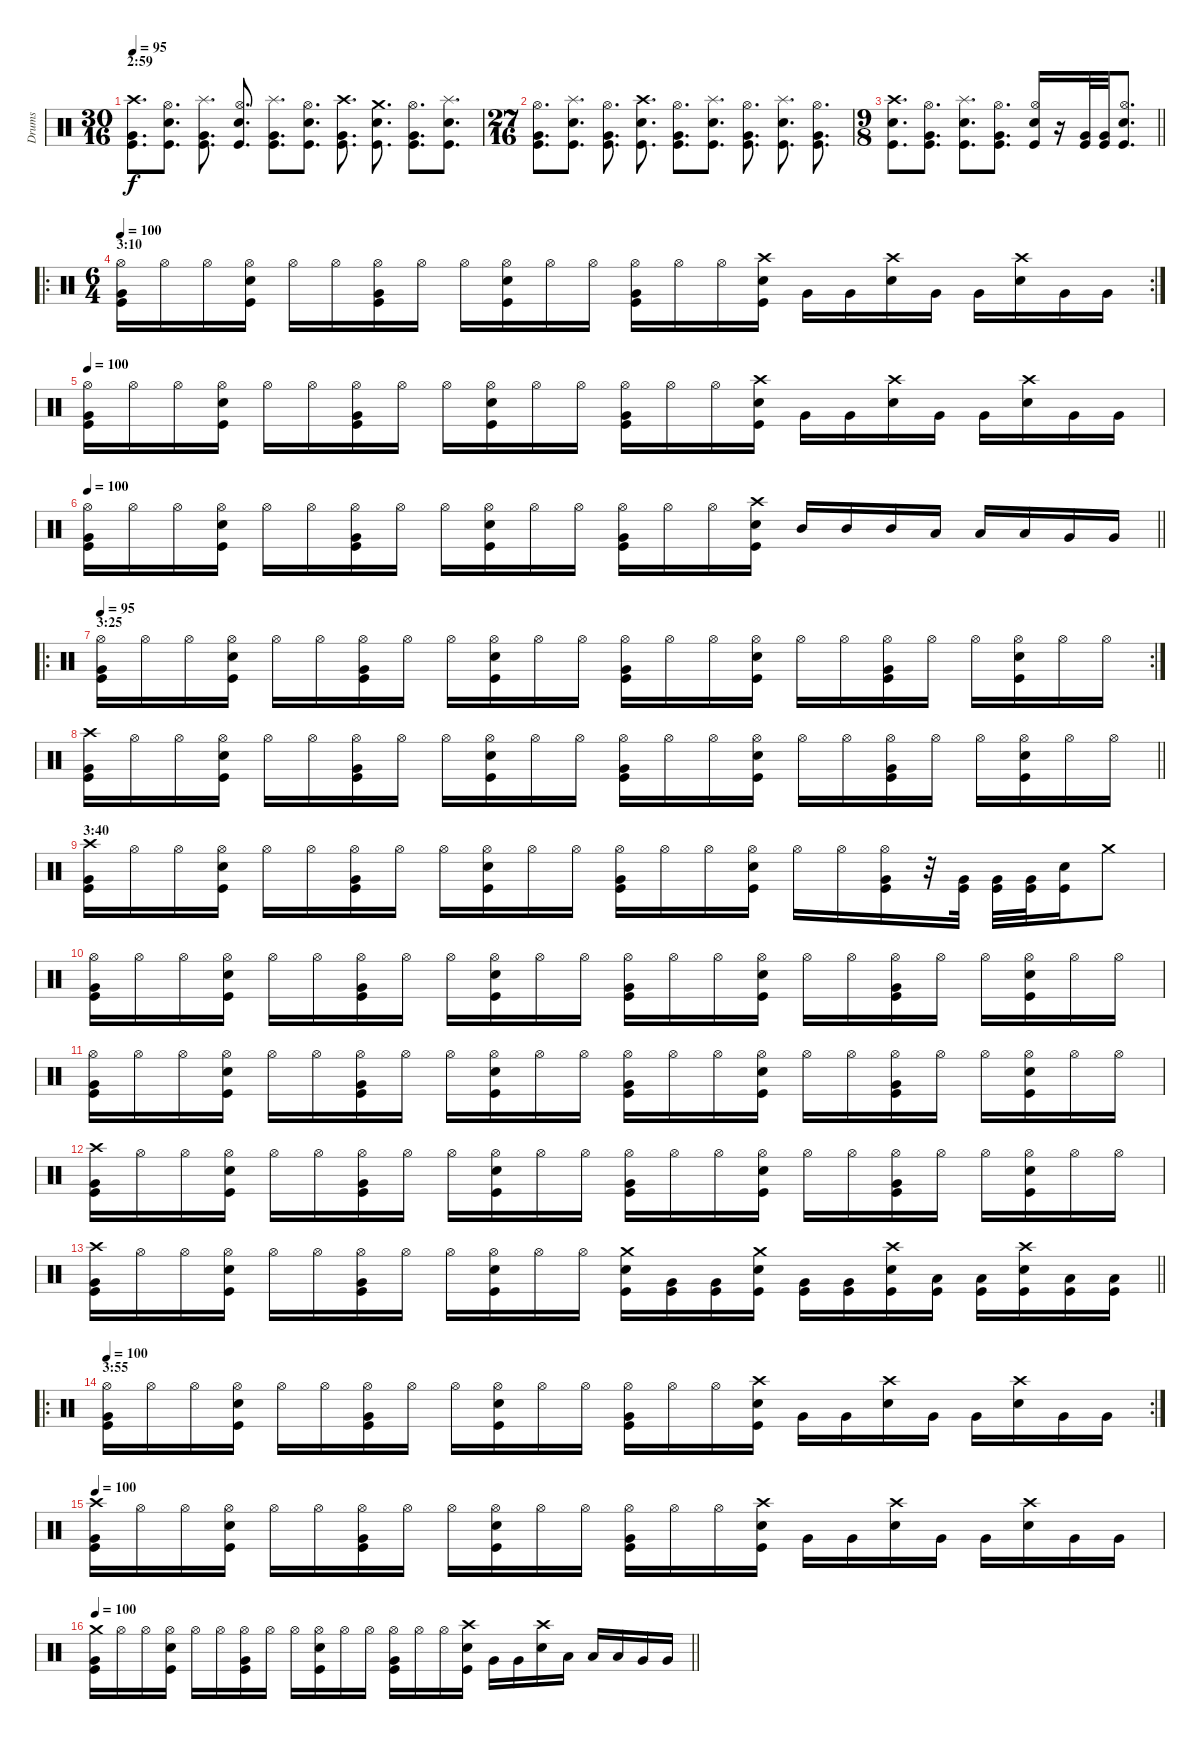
\track ("Drums" "Drums") {instrument percussion}
\staff {score}
\articulation defaults
\ts (30 16)
\section ("" "2:59")
\tempo 95
\clef neutral
\ks c
("Crash high (hit)" "Very Low Tom (hit)" "Kick (hit)").8{d dy f} ("Hi-Hat (open)" "Snare (hit) 2" "Kick (hit)").8{d} ("Splash (hit)" "Very Low Tom (hit)" "Kick (hit)").8{d} ("Hi-Hat (open)" "Snare (hit) 2" "Kick (hit)").8{d} ("Splash (hit)" "Very Low Tom (hit)" "Kick (hit)").8{d} ("Hi-Hat (open)" "Snare (hit) 2" "Kick (hit)").8{d} ("Crash high (hit)" "Very Low Tom (hit)" "Kick (hit)").8{d} ("Crash medium (hit)" "Snare (hit) 2" "Kick (hit)").8{d} ("Hi-Hat (open)" "Very Low Tom (hit)" "Kick (hit)").8{d} ("Splash (hit)" "Snare (hit) 2" "Kick (hit)").8{d} |
\ts (27 16)
("Hi-Hat (open)" "Very Low Tom (hit)" "Kick (hit)").8{d} ("Splash (hit)" "Snare (hit) 2" "Kick (hit)").8{d} ("Hi-Hat (open)" "Very Low Tom (hit)" "Kick (hit)").8{d} ("Crash high (hit)" "Snare (hit) 2" "Kick (hit)").8{d} ("Hi-Hat (open)" "Very Low Tom (hit)" "Kick (hit)").8{d} ("Splash (hit)" "Snare (hit) 2" "Kick (hit)").8{d} ("Hi-Hat (open)" "Very Low Tom (hit)" "Kick (hit)").8{d} ("Splash (hit)" "Snare (hit) 2" "Kick (hit)").8{d} ("Hi-Hat (open)" "Very Low Tom (hit)" "Kick (hit)").8{d} |
\ts (9 8)
\barLineRight lightlight
("Crash high (hit)" "Snare (hit) 2" "Kick (hit)").8{d} ("Hi-Hat (open)" "Very Low Tom (hit)" "Kick (hit)").8{d} ("Splash (hit)" "Snare (hit) 2" "Kick (hit)").8{d} ("Hi-Hat (open)" "Very Low Tom (hit)" "Kick (hit)").8{d} ("Hi-Hat (open)" "Snare (hit) 2" "Kick (hit)").16 r.16 ("Very Low Tom (hit)" "Kick (hit)").32 ("Very Low Tom (hit)" "Kick (hit)").32 ("Hi-Hat (open)" "Snare (hit) 2" "Kick (hit)").8{d} |
\ro
\rc 2
\ts (6 4)
\section ("" "3:10")
\tempo 100
("Hi-Hat (open)" "Very Low Tom (hit)" "Kick (hit)").16 "Hi-Hat (open)".16 "Hi-Hat (open)".16 ("Hi-Hat (open)" "Snare (hit) 2" "Kick (hit)").16 "Hi-Hat (open)".16 "Hi-Hat (open)".16 ("Hi-Hat (open)" "Very Low Tom (hit)" "Kick (hit)").16 "Hi-Hat (open)".16 "Hi-Hat (open)".16 ("Hi-Hat (open)" "Snare (hit) 2" "Kick (hit)").16 "Hi-Hat (open)".16 "Hi-Hat (open)".16 ("Hi-Hat (open)" "Very Low Tom (hit)" "Kick (hit)").16 "Hi-Hat (open)".16 "Hi-Hat (open)".16 ("Crash high (hit)" "Snare (hit) 2" "Kick (hit)").16 "Very Low Tom (hit)".16 "Very Low Tom (hit)".16 ("Crash high (hit)" "Snare (hit) 2").16 "Very Low Tom (hit)".16 "Very Low Tom (hit)".16 ("Crash high (hit)" "Snare (hit) 2").16 "Very Low Tom (hit)".16 "Very Low Tom (hit)".16 |
\tempo 100
("Hi-Hat (open)" "Very Low Tom (hit)" "Kick (hit)").16 "Hi-Hat (open)".16 "Hi-Hat (open)".16 ("Hi-Hat (open)" "Snare (hit) 2" "Kick (hit)").16 "Hi-Hat (open)".16 "Hi-Hat (open)".16 ("Hi-Hat (open)" "Very Low Tom (hit)" "Kick (hit)").16 "Hi-Hat (open)".16 "Hi-Hat (open)".16 ("Hi-Hat (open)" "Snare (hit) 2" "Kick (hit)").16 "Hi-Hat (open)".16 "Hi-Hat (open)".16 ("Hi-Hat (open)" "Very Low Tom (hit)" "Kick (hit)").16 "Hi-Hat (open)".16 "Hi-Hat (open)".16 ("Crash high (hit)" "Snare (hit) 2" "Kick (hit)").16 "Very Low Tom (hit)".16 "Very Low Tom (hit)".16 ("Crash high (hit)" "Snare (hit) 2").16 "Very Low Tom (hit)".16 "Very Low Tom (hit)".16 ("Crash high (hit)" "Snare (hit) 2").16 "Very Low Tom (hit)".16 "Very Low Tom (hit)".16 |
\tempo 100
\barLineRight lightlight
("Hi-Hat (open)" "Very Low Tom (hit)" "Kick (hit)").16 "Hi-Hat (open)".16 "Hi-Hat (open)".16 ("Hi-Hat (open)" "Snare (hit) 2" "Kick (hit)").16 "Hi-Hat (open)".16 "Hi-Hat (open)".16 ("Hi-Hat (open)" "Very Low Tom (hit)" "Kick (hit)").16 "Hi-Hat (open)".16 "Hi-Hat (open)".16 ("Hi-Hat (open)" "Snare (hit) 2" "Kick (hit)").16 "Hi-Hat (open)".16 "Hi-Hat (open)".16 ("Hi-Hat (open)" "Very Low Tom (hit)" "Kick (hit)").16 "Hi-Hat (open)".16 "Hi-Hat (open)".16 ("Crash high (hit)" "Snare (hit) 2" "Kick (hit)").16 "Mid Tom (hit)".16 "Mid Tom (hit)".16 "Mid Tom (hit)".16 "Low Tom (hit)".16 "Low Tom (hit)".16 "Low Tom (hit)".16 "Very Low Tom (hit)".16 "Very Low Tom (hit)".16 |
\ro
\rc 2
\section ("" "3:25")
\tempo 95
("Hi-Hat (open)" "Very Low Tom (hit)" "Kick (hit)").16 "Hi-Hat (open)".16 "Hi-Hat (open)".16 ("Hi-Hat (open)" "Snare (hit) 2" "Kick (hit)").16 "Hi-Hat (open)".16 "Hi-Hat (open)".16 ("Hi-Hat (open)" "Very Low Tom (hit)" "Kick (hit)").16 "Hi-Hat (open)".16 "Hi-Hat (open)".16 ("Hi-Hat (open)" "Snare (hit) 2" "Kick (hit)").16 "Hi-Hat (open)".16 "Hi-Hat (open)".16 ("Hi-Hat (open)" "Very Low Tom (hit)" "Kick (hit)").16 "Hi-Hat (open)".16 "Hi-Hat (open)".16 ("Hi-Hat (open)" "Snare (hit) 2" "Kick (hit)").16 "Hi-Hat (open)".16 "Hi-Hat (open)".16 ("Hi-Hat (open)" "Very Low Tom (hit)" "Kick (hit)").16 "Hi-Hat (open)".16 "Hi-Hat (open)".16 ("Hi-Hat (open)" "Snare (hit) 2" "Kick (hit)").16 "Hi-Hat (open)".16 "Hi-Hat (open)".16 |
\barLineRight lightlight
("Crash high (hit)" "Very Low Tom (hit)" "Kick (hit)").16 "Hi-Hat (open)".16 "Hi-Hat (open)".16 ("Hi-Hat (open)" "Snare (hit) 2" "Kick (hit)").16 "Hi-Hat (open)".16 "Hi-Hat (open)".16 ("Hi-Hat (open)" "Very Low Tom (hit)" "Kick (hit)").16 "Hi-Hat (open)".16 "Hi-Hat (open)".16 ("Hi-Hat (open)" "Snare (hit) 2" "Kick (hit)").16 "Hi-Hat (open)".16 "Hi-Hat (open)".16 ("Hi-Hat (open)" "Very Low Tom (hit)" "Kick (hit)").16 "Hi-Hat (open)".16 "Hi-Hat (open)".16 ("Hi-Hat (open)" "Snare (hit) 2" "Kick (hit)").16 "Hi-Hat (open)".16 "Hi-Hat (open)".16 ("Hi-Hat (open)" "Very Low Tom (hit)" "Kick (hit)").16 "Hi-Hat (open)".16 "Hi-Hat (open)".16 ("Hi-Hat (open)" "Snare (hit) 2" "Kick (hit)").16 "Hi-Hat (open)".16 "Hi-Hat (open)".16 |
\section ("" "3:40")
("Crash high (hit)" "Very Low Tom (hit)" "Kick (hit)").16 "Hi-Hat (open)".16 "Hi-Hat (open)".16 ("Hi-Hat (open)" "Snare (hit) 2" "Kick (hit)").16 "Hi-Hat (open)".16 "Hi-Hat (open)".16 ("Hi-Hat (open)" "Very Low Tom (hit)" "Kick (hit)").16 "Hi-Hat (open)".16 "Hi-Hat (open)".16 ("Hi-Hat (open)" "Snare (hit) 2" "Kick (hit)").16 "Hi-Hat (open)".16 "Hi-Hat (open)".16 ("Hi-Hat (open)" "Very Low Tom (hit)" "Kick (hit)").16 "Hi-Hat (open)".16 "Hi-Hat (open)".16 ("Hi-Hat (open)" "Snare (hit) 2" "Kick (hit)").16 "Hi-Hat (open)".16 "Hi-Hat (open)".16 ("Hi-Hat (open)" "Very Low Tom (hit)" "Kick (hit)").16 r.32 ("Very Low Tom (hit)" "Kick (hit)").32 ("Very Low Tom (hit)" "Kick (hit)").32 ("Very Low Tom (hit)" "Kick (hit)").32 ("Snare (hit) 2" "Kick (hit)").16 "Crash medium (hit)".8 |
("Hi-Hat (open)" "Very Low Tom (hit)" "Kick (hit)").16 "Hi-Hat (open)".16 "Hi-Hat (open)".16 ("Hi-Hat (open)" "Snare (hit) 2" "Kick (hit)").16 "Hi-Hat (open)".16 "Hi-Hat (open)".16 ("Hi-Hat (open)" "Very Low Tom (hit)" "Kick (hit)").16 "Hi-Hat (open)".16 "Hi-Hat (open)".16 ("Hi-Hat (open)" "Snare (hit) 2" "Kick (hit)").16 "Hi-Hat (open)".16 "Hi-Hat (open)".16 ("Hi-Hat (open)" "Very Low Tom (hit)" "Kick (hit)").16 "Hi-Hat (open)".16 "Hi-Hat (open)".16 ("Hi-Hat (open)" "Snare (hit) 2" "Kick (hit)").16 "Hi-Hat (open)".16 "Hi-Hat (open)".16 ("Hi-Hat (open)" "Very Low Tom (hit)" "Kick (hit)").16 "Hi-Hat (open)".16 "Hi-Hat (open)".16 ("Hi-Hat (open)" "Snare (hit) 2" "Kick (hit)").16 "Hi-Hat (open)".16 "Hi-Hat (open)".16 |
("Hi-Hat (open)" "Very Low Tom (hit)" "Kick (hit)").16 "Hi-Hat (open)".16 "Hi-Hat (open)".16 ("Hi-Hat (open)" "Snare (hit) 2" "Kick (hit)").16 "Hi-Hat (open)".16 "Hi-Hat (open)".16 ("Hi-Hat (open)" "Very Low Tom (hit)" "Kick (hit)").16 "Hi-Hat (open)".16 "Hi-Hat (open)".16 ("Hi-Hat (open)" "Snare (hit) 2" "Kick (hit)").16 "Hi-Hat (open)".16 "Hi-Hat (open)".16 ("Hi-Hat (open)" "Very Low Tom (hit)" "Kick (hit)").16 "Hi-Hat (open)".16 "Hi-Hat (open)".16 ("Hi-Hat (open)" "Snare (hit) 2" "Kick (hit)").16 "Hi-Hat (open)".16 "Hi-Hat (open)".16 ("Hi-Hat (open)" "Very Low Tom (hit)" "Kick (hit)").16 "Hi-Hat (open)".16 "Hi-Hat (open)".16 ("Hi-Hat (open)" "Snare (hit) 2" "Kick (hit)").16 "Hi-Hat (open)".16 "Hi-Hat (open)".16 |
("Crash high (hit)" "Very Low Tom (hit)" "Kick (hit)").16 "Hi-Hat (open)".16 "Hi-Hat (open)".16 ("Hi-Hat (open)" "Snare (hit) 2" "Kick (hit)").16 "Hi-Hat (open)".16 "Hi-Hat (open)".16 ("Hi-Hat (open)" "Very Low Tom (hit)" "Kick (hit)").16 "Hi-Hat (open)".16 "Hi-Hat (open)".16 ("Hi-Hat (open)" "Snare (hit) 2" "Kick (hit)").16 "Hi-Hat (open)".16 "Hi-Hat (open)".16 ("Hi-Hat (open)" "Very Low Tom (hit)" "Kick (hit)").16 "Hi-Hat (open)".16 "Hi-Hat (open)".16 ("Hi-Hat (open)" "Snare (hit) 2" "Kick (hit)").16 "Hi-Hat (open)".16 "Hi-Hat (open)".16 ("Hi-Hat (open)" "Very Low Tom (hit)" "Kick (hit)").16 "Hi-Hat (open)".16 "Hi-Hat (open)".16 ("Hi-Hat (open)" "Snare (hit) 2" "Kick (hit)").16 "Hi-Hat (open)".16 "Hi-Hat (open)".16 |
\barLineRight lightlight
("Crash high (hit)" "Very Low Tom (hit)" "Kick (hit)").16 "Hi-Hat (open)".16 "Hi-Hat (open)".16 ("Hi-Hat (open)" "Snare (hit) 2" "Kick (hit)").16 "Hi-Hat (open)".16 "Hi-Hat (open)".16 ("Hi-Hat (open)" "Very Low Tom (hit)" "Kick (hit)").16 "Hi-Hat (open)".16 "Hi-Hat (open)".16 ("Hi-Hat (open)" "Snare (hit) 2" "Kick (hit)").16 "Hi-Hat (open)".16 "Hi-Hat (open)".16 ("Crash medium (hit)" "Snare (hit) 2" "Kick (hit)").16 ("Very Low Tom (hit)" "Kick (hit)").16 ("Very Low Tom (hit)" "Kick (hit)").16 ("Crash medium (hit)" "Snare (hit) 2" "Kick (hit)").16 ("Very Low Tom (hit)" "Kick (hit)").16 ("Very Low Tom (hit)" "Kick (hit)").16 ("Crash high (hit)" "Snare (hit) 2" "Kick (hit)").16 ("Low Tom (hit)" "Kick (hit)").16 ("Low Tom (hit)" "Kick (hit)").16 ("Crash high (hit)" "Snare (hit) 2" "Kick (hit)").16 ("Low Tom (hit)" "Kick (hit)").16 ("Low Tom (hit)" "Kick (hit)").16 |
\ro
\rc 2
\section ("" "3:55")
\tempo 100
("Hi-Hat (open)" "Very Low Tom (hit)" "Kick (hit)").16 "Hi-Hat (open)".16 "Hi-Hat (open)".16 ("Hi-Hat (open)" "Snare (hit) 2" "Kick (hit)").16 "Hi-Hat (open)".16 "Hi-Hat (open)".16 ("Hi-Hat (open)" "Very Low Tom (hit)" "Kick (hit)").16 "Hi-Hat (open)".16 "Hi-Hat (open)".16 ("Hi-Hat (open)" "Snare (hit) 2" "Kick (hit)").16 "Hi-Hat (open)".16 "Hi-Hat (open)".16 ("Hi-Hat (open)" "Very Low Tom (hit)" "Kick (hit)").16 "Hi-Hat (open)".16 "Hi-Hat (open)".16 ("Crash high (hit)" "Snare (hit) 2" "Kick (hit)").16 "Very Low Tom (hit)".16 "Very Low Tom (hit)".16 ("Crash high (hit)" "Snare (hit) 2").16 "Very Low Tom (hit)".16 "Very Low Tom (hit)".16 ("Crash high (hit)" "Snare (hit) 2").16 "Very Low Tom (hit)".16 "Very Low Tom (hit)".16 |
\tempo 100
("Crash high (hit)" "Very Low Tom (hit)" "Kick (hit)").16 "Hi-Hat (open)".16 "Hi-Hat (open)".16 ("Hi-Hat (open)" "Snare (hit) 2" "Kick (hit)").16 "Hi-Hat (open)".16 "Hi-Hat (open)".16 ("Hi-Hat (open)" "Very Low Tom (hit)" "Kick (hit)").16 "Hi-Hat (open)".16 "Hi-Hat (open)".16 ("Hi-Hat (open)" "Snare (hit) 2" "Kick (hit)").16 "Hi-Hat (open)".16 "Hi-Hat (open)".16 ("Hi-Hat (open)" "Very Low Tom (hit)" "Kick (hit)").16 "Hi-Hat (open)".16 "Hi-Hat (open)".16 ("Crash high (hit)" "Snare (hit) 2" "Kick (hit)").16 "Very Low Tom (hit)".16 "Very Low Tom (hit)".16 ("Crash high (hit)" "Snare (hit) 2").16 "Very Low Tom (hit)".16 "Very Low Tom (hit)".16 ("Crash high (hit)" "Snare (hit) 2").16 "Very Low Tom (hit)".16 "Very Low Tom (hit)".16 |
\tempo 100
\barLineRight lightlight
("Crash medium (hit)" "Very Low Tom (hit)" "Kick (hit)").16 "Hi-Hat (open)".16 "Hi-Hat (open)".16 ("Hi-Hat (open)" "Snare (hit) 2" "Kick (hit)").16 "Hi-Hat (open)".16 "Hi-Hat (open)".16 ("Hi-Hat (open)" "Very Low Tom (hit)" "Kick (hit)").16 "Hi-Hat (open)".16 "Hi-Hat (open)".16 ("Hi-Hat (open)" "Snare (hit) 2" "Kick (hit)").16 "Hi-Hat (open)".16 "Hi-Hat (open)".16 ("Hi-Hat (open)" "Very Low Tom (hit)" "Kick (hit)").16 "Hi-Hat (open)".16 "Hi-Hat (open)".16 ("Crash high (hit)" "Snare (hit) 2" "Kick (hit)").16 "Very Low Tom (hit)".16 "Very Low Tom (hit)".16 ("Crash high (hit)" "Snare (hit) 2").16 "Low Tom (hit)".16 "Low Tom (hit)".16 "Low Tom (hit)".16 "Very Low Tom (hit)".16 "Very Low Tom (hit)".16
